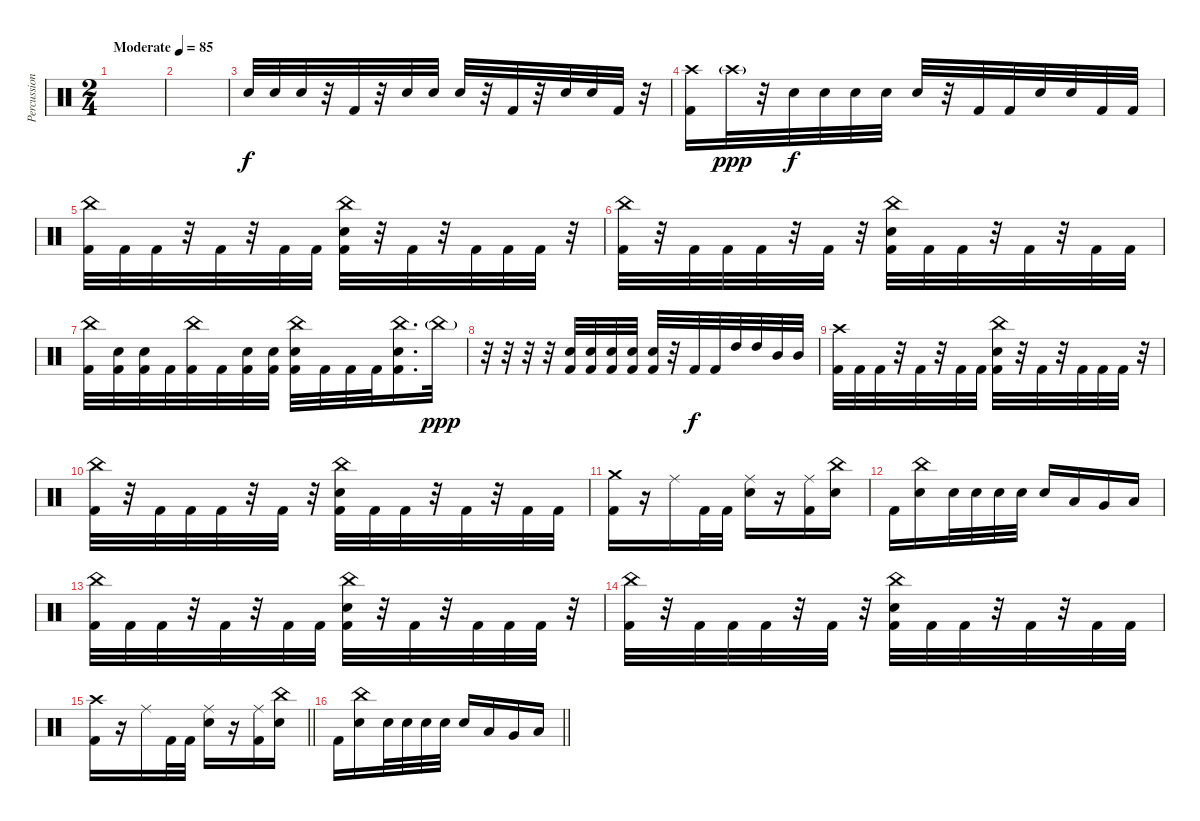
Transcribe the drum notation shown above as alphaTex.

\track ("Percussion" "Percussion") {instrument percussion}
\staff {score}
\articulation defaults
\ts (2 4)
\tempo (85 "Moderate")
\clef neutral
\ks c
|
|
"Snare (hit) 2".32 "Snare (hit) 2".32 "Snare (hit) 2".32 r.32 "Kick (hit) 2".32 r.32 "Snare (hit) 2".32 "Snare (hit) 2".32 "Snare (hit) 2".32 r.32 "Kick (hit) 2".32 r.32 "Snare (hit) 2".32 "Snare (hit) 2".32 "Kick (hit) 2".32 r.32 |
("Crash high (hit)" "Kick (hit) 2").16 "Crash high (hit)"{g}.32{dy ppp} r.32 "Snare (hit) 2".32{dy f} "Snare (hit) 2".32 "Snare (hit) 2".32 "Snare (hit) 2".32 "Snare (hit) 2".32 r.32 "Kick (hit) 2".32 "Kick (hit) 2".32 "Snare (hit) 2".32 "Snare (hit) 2".32 "Kick (hit) 2".32 "Kick (hit) 2".32 |
("Kick (hit) 2" "China (hit)").32 "Kick (hit) 2".32 "Kick (hit) 2".32 r.32 "Kick (hit) 2".32 r.32 "Kick (hit) 2".32 "Kick (hit) 2".32 ("Kick (hit) 2" "Snare (hit) 2" "China (hit)").32 r.32 "Kick (hit) 2".32 r.32 "Kick (hit) 2".32 "Kick (hit) 2".32 "Kick (hit) 2".32 r.32 |
("Kick (hit) 2" "China (hit)").32 r.32 "Kick (hit) 2".32 "Kick (hit) 2".32 "Kick (hit) 2".32 r.32 "Kick (hit) 2".32 r.32 ("Kick (hit) 2" "Snare (hit) 2" "China (hit)").32 "Kick (hit) 2".32 "Kick (hit) 2".32 r.32 "Kick (hit) 2".32 r.32 "Kick (hit) 2".32 "Kick (hit) 2".32 |
("China (hit)" "Kick (hit) 2").32 ("Snare (hit) 2" "Kick (hit) 2").32 ("Snare (hit) 2" "Kick (hit) 2").32 "Kick (hit) 2".32 ("China (hit)" "Kick (hit) 2").32 "Kick (hit) 2".32 ("Snare (hit) 2" "Kick (hit) 2").32 ("Snare (hit) 2" "Kick (hit) 2").32 ("Snare (hit) 2" "China (hit)" "Kick (hit) 2").32 "Kick (hit) 2".32 "Kick (hit) 2".32 "Kick (hit) 2".32 ("Snare (hit) 2" "China (hit)" "Kick (hit) 2").16{d} "China (hit)"{g}.32{dy ppp} |
r.32 r.32 r.32 r.32 ("Snare (hit) 2" "Kick (hit) 2").32 ("Snare (hit) 2" "Kick (hit) 2").32 ("Snare (hit) 2" "Kick (hit) 2").32 ("Snare (hit) 2" "Kick (hit) 2").32 ("Snare (hit) 2" "Kick (hit) 2").32 r.32 "Kick (hit) 2".32{dy f} "Kick (hit) 2".32 "High Tom (hit)".32 "High Tom (hit)".32 "Mid Tom (hit)".32 "Mid Tom (hit)".32 |
("Kick (hit) 2" "Crash high (hit)").32 "Kick (hit) 2".32 "Kick (hit) 2".32 r.32 "Kick (hit) 2".32 r.32 "Kick (hit) 2".32 "Kick (hit) 2".32 ("Kick (hit) 2" "Snare (hit) 2" "China (hit)").32 r.32 "Kick (hit) 2".32 r.32 "Kick (hit) 2".32 "Kick (hit) 2".32 "Kick (hit) 2".32 r.32 |
("Kick (hit) 2" "China (hit)").32 r.32 "Kick (hit) 2".32 "Kick (hit) 2".32 "Kick (hit) 2".32 r.32 "Kick (hit) 2".32 r.32 ("Kick (hit) 2" "Snare (hit) 2" "China (hit)").32 "Kick (hit) 2".32 "Kick (hit) 2".32 r.32 "Kick (hit) 2".32 r.32 "Kick (hit) 2".32 "Kick (hit) 2".32 |
("Kick (hit) 2" "Crash medium (hit)").16 r.16 "Ride (middle)".16 "Kick (hit) 2".32 "Kick (hit) 2".32 ("Snare (hit) 2" "Ride (middle)").16 r.16 ("Ride (middle)" "Kick (hit) 2").16 ("China (hit)" "Snare (hit) 2").16 |
"Kick (hit) 2".16 ("China (hit)" "Snare (hit) 2").16 "Snare (hit) 2".32 "Snare (hit) 2".32 "Snare (hit) 2".32 "Snare (hit) 2".32 "Snare (hit) 2".16 "Low Tom (hit)".16 "Very Low Tom (hit)".16 "Low Floor Tom (hit)".16 |
("Kick (hit) 2" "China (hit)").32 "Kick (hit) 2".32 "Kick (hit) 2".32 r.32 "Kick (hit) 2".32 r.32 "Kick (hit) 2".32 "Kick (hit) 2".32 ("Kick (hit) 2" "Snare (hit) 2" "China (hit)").32 r.32 "Kick (hit) 2".32 r.32 "Kick (hit) 2".32 "Kick (hit) 2".32 "Kick (hit) 2".32 r.32 |
("Kick (hit) 2" "China (hit)").32 r.32 "Kick (hit) 2".32 "Kick (hit) 2".32 "Kick (hit) 2".32 r.32 "Kick (hit) 2".32 r.32 ("Kick (hit) 2" "Snare (hit) 2" "China (hit)").32 "Kick (hit) 2".32 "Kick (hit) 2".32 r.32 "Kick (hit) 2".32 r.32 "Kick (hit) 2".32 "Kick (hit) 2".32 |
\barLineRight lightlight
("Kick (hit) 2" "Crash high (hit)").16 r.16 "Ride (middle)".16 "Kick (hit) 2".32 "Kick (hit) 2".32 ("Snare (hit) 2" "Ride (middle)").16 r.16 ("Ride (middle)" "Kick (hit) 2").16 ("China (hit)" "Snare (hit) 2").16 |
\barLineRight lightlight "Kick (hit) 2".16
("China (hit)" "Snare (hit) 2").16 "Snare (hit) 2".32 "Snare (hit) 2".32 "Snare (hit) 2".32 "Snare (hit) 2".32 "Snare (hit) 2".16 "Low Tom (hit)".16 "Very Low Tom (hit)".16 "Low Floor Tom (hit)".16
